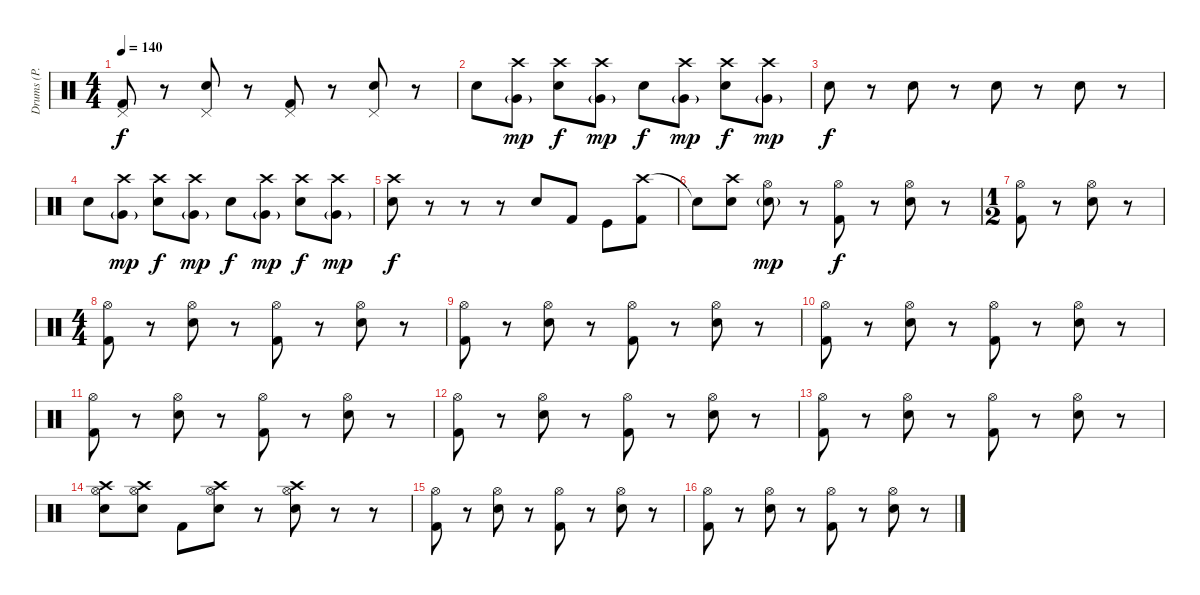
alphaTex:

\track ("Drums (P. Rudd)" "Drums (P. ") {instrument percussion}
\staff {score}
\articulation defaults
\ts (4 4)
\tempo 140
\clef neutral
\ks c
("Pedal Hi-Hat (hit)" "Kick (hit) 2").8{dy f} r.8 ("Pedal Hi-Hat (hit)" "Snare (hit) 2").8 r.8 ("Pedal Hi-Hat (hit)" "Kick (hit) 2").8 r.8 ("Pedal Hi-Hat (hit)" "Snare (hit) 2").8 r.8 |
"Electric Snare (hit)".8 ("Crash high (hit)" "Very Low Tom (hit)"{g}).8{dy mp} ("Crash high (hit)" "Electric Snare (hit)").8{dy f} ("Crash high (hit)" "Very Low Tom (hit)"{g}).8{dy mp} "Electric Snare (hit)".8{dy f} ("Crash high (hit)" "Very Low Tom (hit)"{g}).8{dy mp} ("Crash high (hit)" "Electric Snare (hit)").8{dy f} ("Crash high (hit)" "Very Low Tom (hit)"{g}).8{dy mp} |
"Electric Snare (hit)".8{dy f} r.8 "Electric Snare (hit)".8 r.8 "Electric Snare (hit)".8 r.8 "Electric Snare (hit)".8 r.8 |
"Electric Snare (hit)".8 ("Crash high (hit)" "Very Low Tom (hit)"{g}).8{dy mp} ("Crash high (hit)" "Electric Snare (hit)").8{dy f} ("Crash high (hit)" "Very Low Tom (hit)"{g}).8{dy mp} "Electric Snare (hit)".8{dy f} ("Crash high (hit)" "Very Low Tom (hit)"{g}).8{dy mp} ("Crash high (hit)" "Electric Snare (hit)").8{dy f} ("Crash high (hit)" "Very Low Tom (hit)"{g}).8{dy mp} |
("Crash high (hit)" "Electric Snare (hit)").8{dy f} r.8 r.8 r.8 "Electric Snare (hit)".8 "Kick (hit) 2".8 "Kick (hit)".8 ("Crash high (hit)" "Kick (hit) 2").8 |
"Snare (hit)"{t}.8 ("Crash high (hit)" "Snare (hit) 2").8 ("Hi-Hat (open)" "Electric Snare (hit)"{g}).8{dy mp} r.8 ("Hi-Hat (open)" "Kick (hit) 2").8{dy f} r.8 ("Hi-Hat (open)" "Snare (hit) 2").8 r.8 |
\ts (1 2)
("Hi-Hat (open)" "Kick (hit) 2").8 r.8 ("Hi-Hat (open)" "Snare (hit) 2").8 r.8 |
\ts (4 4)
("Hi-Hat (open)" "Kick (hit) 2").8 r.8 ("Hi-Hat (open)" "Snare (hit) 2").8 r.8 ("Hi-Hat (open)" "Kick (hit) 2").8 r.8 ("Hi-Hat (open)" "Snare (hit) 2").8 r.8 |
("Hi-Hat (open)" "Kick (hit) 2").8 r.8 ("Hi-Hat (open)" "Snare (hit) 2").8 r.8 ("Hi-Hat (open)" "Kick (hit) 2").8 r.8 ("Hi-Hat (open)" "Snare (hit) 2").8 r.8 |
("Hi-Hat (open)" "Kick (hit) 2").8 r.8 ("Hi-Hat (open)" "Snare (hit) 2").8 r.8 ("Hi-Hat (open)" "Kick (hit) 2").8 r.8 ("Hi-Hat (open)" "Snare (hit) 2").8 r.8 |
("Hi-Hat (open)" "Kick (hit) 2").8 r.8 ("Hi-Hat (open)" "Snare (hit) 2").8 r.8 ("Hi-Hat (open)" "Kick (hit) 2").8 r.8 ("Hi-Hat (open)" "Snare (hit) 2").8 r.8 |
("Hi-Hat (open)" "Kick (hit) 2").8 r.8 ("Hi-Hat (open)" "Snare (hit) 2").8 r.8 ("Hi-Hat (open)" "Kick (hit) 2").8 r.8 ("Hi-Hat (open)" "Snare (hit) 2").8 r.8 |
("Hi-Hat (open)" "Kick (hit) 2").8 r.8 ("Hi-Hat (open)" "Snare (hit) 2").8 r.8 ("Hi-Hat (open)" "Kick (hit) 2").8 r.8 ("Hi-Hat (open)" "Snare (hit) 2").8 r.8 |
("Hi-Hat (open)" "Crash high (hit)" "Snare (hit) 2").8 ("Hi-Hat (open)" "Crash high (hit)" "Snare (hit) 2").8 "Kick (hit) 2".8 ("Hi-Hat (open)" "Crash high (hit)" "Snare (hit) 2").8 r.8 ("Hi-Hat (open)" "Crash high (hit)" "Snare (hit) 2").8 r.8 r.8 |
("Hi-Hat (open)" "Kick (hit) 2").8 r.8 ("Hi-Hat (open)" "Snare (hit) 2").8 r.8 ("Hi-Hat (open)" "Kick (hit) 2").8 r.8 ("Hi-Hat (open)" "Snare (hit) 2").8 r.8 |
("Hi-Hat (open)" "Kick (hit) 2").8 r.8 ("Hi-Hat (open)" "Snare (hit) 2").8 r.8 ("Hi-Hat (open)" "Kick (hit) 2").8 r.8 ("Hi-Hat (open)" "Snare (hit) 2").8 r.8
